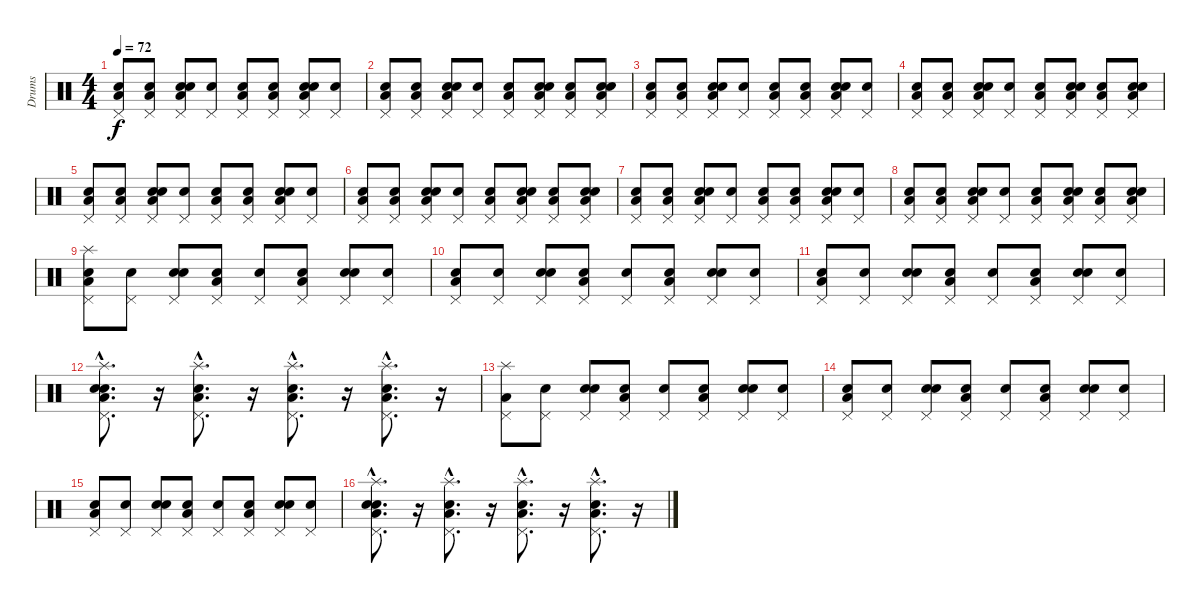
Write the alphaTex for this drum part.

\track ("Drums" "Drums") {instrument percussion}
\staff {score}
\articulation defaults
\ts (4 4)
\tempo 72
\clef neutral
\ks c
("Snare (hit)" "Low Floor Tom (hit)" "Pedal Hi-Hat (hit)").8{dy f} ("Snare (hit)" "Low Floor Tom (hit)" "Pedal Hi-Hat (hit)").8 ("Snare (hit)" "Electric Snare (hit)" "Low Floor Tom (hit)" "Pedal Hi-Hat (hit)").8 ("Snare (hit)" "Pedal Hi-Hat (hit)").8 ("Snare (hit)" "Low Floor Tom (hit)" "Pedal Hi-Hat (hit)").8 ("Snare (hit)" "Low Floor Tom (hit)" "Pedal Hi-Hat (hit)").8 ("Snare (hit)" "Electric Snare (hit)" "Low Floor Tom (hit)" "Pedal Hi-Hat (hit)").8 ("Snare (hit)" "Pedal Hi-Hat (hit)").8 |
("Snare (hit)" "Low Floor Tom (hit)" "Pedal Hi-Hat (hit)").8 ("Snare (hit)" "Low Floor Tom (hit)" "Pedal Hi-Hat (hit)").8 ("Snare (hit)" "Electric Snare (hit)" "Low Floor Tom (hit)" "Pedal Hi-Hat (hit)").8 ("Snare (hit)" "Pedal Hi-Hat (hit)").8 ("Snare (hit)" "Low Floor Tom (hit)" "Pedal Hi-Hat (hit)").8 ("Snare (hit)" "Electric Snare (hit)" "Low Floor Tom (hit)" "Pedal Hi-Hat (hit)").8 ("Snare (hit)" "Low Floor Tom (hit)" "Pedal Hi-Hat (hit)").8 ("Snare (hit)" "Electric Snare (hit)" "Low Floor Tom (hit)" "Pedal Hi-Hat (hit)").8 |
("Snare (hit)" "Low Floor Tom (hit)" "Pedal Hi-Hat (hit)").8 ("Snare (hit)" "Low Floor Tom (hit)" "Pedal Hi-Hat (hit)").8 ("Snare (hit)" "Electric Snare (hit)" "Low Floor Tom (hit)" "Pedal Hi-Hat (hit)").8 ("Snare (hit)" "Pedal Hi-Hat (hit)").8 ("Snare (hit)" "Low Floor Tom (hit)" "Pedal Hi-Hat (hit)").8 ("Snare (hit)" "Low Floor Tom (hit)" "Pedal Hi-Hat (hit)").8 ("Snare (hit)" "Electric Snare (hit)" "Low Floor Tom (hit)" "Pedal Hi-Hat (hit)").8 ("Snare (hit)" "Pedal Hi-Hat (hit)").8 |
("Snare (hit)" "Low Floor Tom (hit)" "Pedal Hi-Hat (hit)").8 ("Snare (hit)" "Low Floor Tom (hit)" "Pedal Hi-Hat (hit)").8 ("Snare (hit)" "Electric Snare (hit)" "Low Floor Tom (hit)" "Pedal Hi-Hat (hit)").8 ("Snare (hit)" "Pedal Hi-Hat (hit)").8 ("Snare (hit)" "Low Floor Tom (hit)" "Pedal Hi-Hat (hit)").8 ("Snare (hit)" "Electric Snare (hit)" "Low Floor Tom (hit)" "Pedal Hi-Hat (hit)").8 ("Snare (hit)" "Low Floor Tom (hit)" "Pedal Hi-Hat (hit)").8 ("Snare (hit)" "Electric Snare (hit)" "Low Floor Tom (hit)" "Pedal Hi-Hat (hit)").8 |
("Snare (hit)" "Low Floor Tom (hit)" "Pedal Hi-Hat (hit)").8 ("Snare (hit)" "Low Floor Tom (hit)" "Pedal Hi-Hat (hit)").8 ("Snare (hit)" "Electric Snare (hit)" "Low Floor Tom (hit)" "Pedal Hi-Hat (hit)").8 ("Snare (hit)" "Pedal Hi-Hat (hit)").8 ("Snare (hit)" "Low Floor Tom (hit)" "Pedal Hi-Hat (hit)").8 ("Snare (hit)" "Low Floor Tom (hit)" "Pedal Hi-Hat (hit)").8 ("Snare (hit)" "Electric Snare (hit)" "Low Floor Tom (hit)" "Pedal Hi-Hat (hit)").8 ("Snare (hit)" "Pedal Hi-Hat (hit)").8 |
("Snare (hit)" "Low Floor Tom (hit)" "Pedal Hi-Hat (hit)").8 ("Snare (hit)" "Low Floor Tom (hit)" "Pedal Hi-Hat (hit)").8 ("Snare (hit)" "Electric Snare (hit)" "Low Floor Tom (hit)" "Pedal Hi-Hat (hit)").8 ("Snare (hit)" "Pedal Hi-Hat (hit)").8 ("Snare (hit)" "Low Floor Tom (hit)" "Pedal Hi-Hat (hit)").8 ("Snare (hit)" "Electric Snare (hit)" "Low Floor Tom (hit)" "Pedal Hi-Hat (hit)").8 ("Snare (hit)" "Low Floor Tom (hit)" "Pedal Hi-Hat (hit)").8 ("Snare (hit)" "Electric Snare (hit)" "Low Floor Tom (hit)" "Pedal Hi-Hat (hit)").8 |
("Snare (hit)" "Low Floor Tom (hit)" "Pedal Hi-Hat (hit)").8 ("Snare (hit)" "Low Floor Tom (hit)" "Pedal Hi-Hat (hit)").8 ("Snare (hit)" "Electric Snare (hit)" "Low Floor Tom (hit)" "Pedal Hi-Hat (hit)").8 ("Snare (hit)" "Pedal Hi-Hat (hit)").8 ("Snare (hit)" "Low Floor Tom (hit)" "Pedal Hi-Hat (hit)").8 ("Snare (hit)" "Low Floor Tom (hit)" "Pedal Hi-Hat (hit)").8 ("Snare (hit)" "Electric Snare (hit)" "Low Floor Tom (hit)" "Pedal Hi-Hat (hit)").8 ("Snare (hit)" "Pedal Hi-Hat (hit)").8 |
("Snare (hit)" "Low Floor Tom (hit)" "Pedal Hi-Hat (hit)").8 ("Snare (hit)" "Low Floor Tom (hit)" "Pedal Hi-Hat (hit)").8 ("Snare (hit)" "Electric Snare (hit)" "Low Floor Tom (hit)" "Pedal Hi-Hat (hit)").8 ("Snare (hit)" "Pedal Hi-Hat (hit)").8 ("Snare (hit)" "Low Floor Tom (hit)" "Pedal Hi-Hat (hit)").8 ("Snare (hit)" "Electric Snare (hit)" "Low Floor Tom (hit)" "Pedal Hi-Hat (hit)").8 ("Snare (hit)" "Low Floor Tom (hit)" "Pedal Hi-Hat (hit)").8 ("Snare (hit)" "Electric Snare (hit)" "Low Floor Tom (hit)" "Pedal Hi-Hat (hit)").8 |
("Snare (hit)" "Low Floor Tom (hit)" "Pedal Hi-Hat (hit)" "Splash (hit)").8 ("Snare (hit)" "Pedal Hi-Hat (hit)").8 ("Snare (hit)" "Electric Snare (hit)" "Pedal Hi-Hat (hit)").8 ("Snare (hit)" "Low Floor Tom (hit)" "Pedal Hi-Hat (hit)").8 ("Snare (hit)" "Pedal Hi-Hat (hit)").8 ("Snare (hit)" "Low Floor Tom (hit)" "Pedal Hi-Hat (hit)").8 ("Snare (hit)" "Electric Snare (hit)" "Pedal Hi-Hat (hit)").8 ("Snare (hit)" "Pedal Hi-Hat (hit)").8 |
("Snare (hit)" "Low Floor Tom (hit)" "Pedal Hi-Hat (hit)").8 ("Snare (hit)" "Pedal Hi-Hat (hit)").8 ("Snare (hit)" "Electric Snare (hit)" "Pedal Hi-Hat (hit)").8 ("Snare (hit)" "Low Floor Tom (hit)" "Pedal Hi-Hat (hit)").8 ("Snare (hit)" "Pedal Hi-Hat (hit)").8 ("Snare (hit)" "Low Floor Tom (hit)" "Pedal Hi-Hat (hit)").8 ("Snare (hit)" "Electric Snare (hit)" "Pedal Hi-Hat (hit)").8 ("Snare (hit)" "Pedal Hi-Hat (hit)").8 |
("Snare (hit)" "Low Floor Tom (hit)" "Pedal Hi-Hat (hit)").8 ("Snare (hit)" "Pedal Hi-Hat (hit)").8 ("Snare (hit)" "Electric Snare (hit)" "Pedal Hi-Hat (hit)").8 ("Snare (hit)" "Low Floor Tom (hit)" "Pedal Hi-Hat (hit)").8 ("Snare (hit)" "Pedal Hi-Hat (hit)").8 ("Snare (hit)" "Low Floor Tom (hit)" "Pedal Hi-Hat (hit)").8 ("Snare (hit)" "Electric Snare (hit)" "Pedal Hi-Hat (hit)").8 ("Snare (hit)" "Pedal Hi-Hat (hit)").8 |
("Snare (hit)"{hac} "Electric Snare (hit)"{hac} "Low Floor Tom (hit)"{hac} "Pedal Hi-Hat (hit)"{hac} "Splash (hit)"{hac}).8{d} r.16 ("Electric Snare (hit)"{hac} "Low Floor Tom (hit)"{hac} "Pedal Hi-Hat (hit)"{hac} "Splash (hit)"{hac}).8{d} r.16 ("Electric Snare (hit)"{hac} "Low Floor Tom (hit)"{hac} "Pedal Hi-Hat (hit)"{hac} "Splash (hit)"{hac}).8{d} r.16 ("Electric Snare (hit)"{hac} "Low Floor Tom (hit)"{hac} "Pedal Hi-Hat (hit)"{hac} "Splash (hit)"{hac}).8{d} r.16 |
("Low Floor Tom (hit)" "Pedal Hi-Hat (hit)" "Splash (hit)").8 ("Snare (hit)" "Pedal Hi-Hat (hit)").8 ("Snare (hit)" "Electric Snare (hit)" "Pedal Hi-Hat (hit)").8 ("Snare (hit)" "Low Floor Tom (hit)" "Pedal Hi-Hat (hit)").8 ("Snare (hit)" "Pedal Hi-Hat (hit)").8 ("Snare (hit)" "Low Floor Tom (hit)" "Pedal Hi-Hat (hit)").8 ("Snare (hit)" "Electric Snare (hit)" "Pedal Hi-Hat (hit)").8 ("Snare (hit)" "Pedal Hi-Hat (hit)").8 |
("Snare (hit)" "Low Floor Tom (hit)" "Pedal Hi-Hat (hit)").8 ("Snare (hit)" "Pedal Hi-Hat (hit)").8 ("Snare (hit)" "Electric Snare (hit)" "Pedal Hi-Hat (hit)").8 ("Snare (hit)" "Low Floor Tom (hit)" "Pedal Hi-Hat (hit)").8 ("Snare (hit)" "Pedal Hi-Hat (hit)").8 ("Snare (hit)" "Low Floor Tom (hit)" "Pedal Hi-Hat (hit)").8 ("Snare (hit)" "Electric Snare (hit)" "Pedal Hi-Hat (hit)").8 ("Snare (hit)" "Pedal Hi-Hat (hit)").8 |
("Snare (hit)" "Low Floor Tom (hit)" "Pedal Hi-Hat (hit)").8 ("Snare (hit)" "Pedal Hi-Hat (hit)").8 ("Snare (hit)" "Electric Snare (hit)" "Pedal Hi-Hat (hit)").8 ("Snare (hit)" "Low Floor Tom (hit)" "Pedal Hi-Hat (hit)").8 ("Snare (hit)" "Pedal Hi-Hat (hit)").8 ("Snare (hit)" "Low Floor Tom (hit)" "Pedal Hi-Hat (hit)").8 ("Snare (hit)" "Electric Snare (hit)" "Pedal Hi-Hat (hit)").8 ("Snare (hit)" "Pedal Hi-Hat (hit)").8 |
("Snare (hit)"{hac} "Electric Snare (hit)"{hac} "Low Floor Tom (hit)"{hac} "Pedal Hi-Hat (hit)"{hac} "Splash (hit)"{hac}).8{d} r.16 ("Electric Snare (hit)"{hac} "Low Floor Tom (hit)"{hac} "Pedal Hi-Hat (hit)"{hac} "Splash (hit)"{hac}).8{d} r.16 ("Electric Snare (hit)"{hac} "Low Floor Tom (hit)"{hac} "Pedal Hi-Hat (hit)"{hac} "Splash (hit)"{hac}).8{d} r.16 ("Electric Snare (hit)"{hac} "Low Floor Tom (hit)"{hac} "Pedal Hi-Hat (hit)"{hac} "Splash (hit)"{hac}).8{d} r.16
